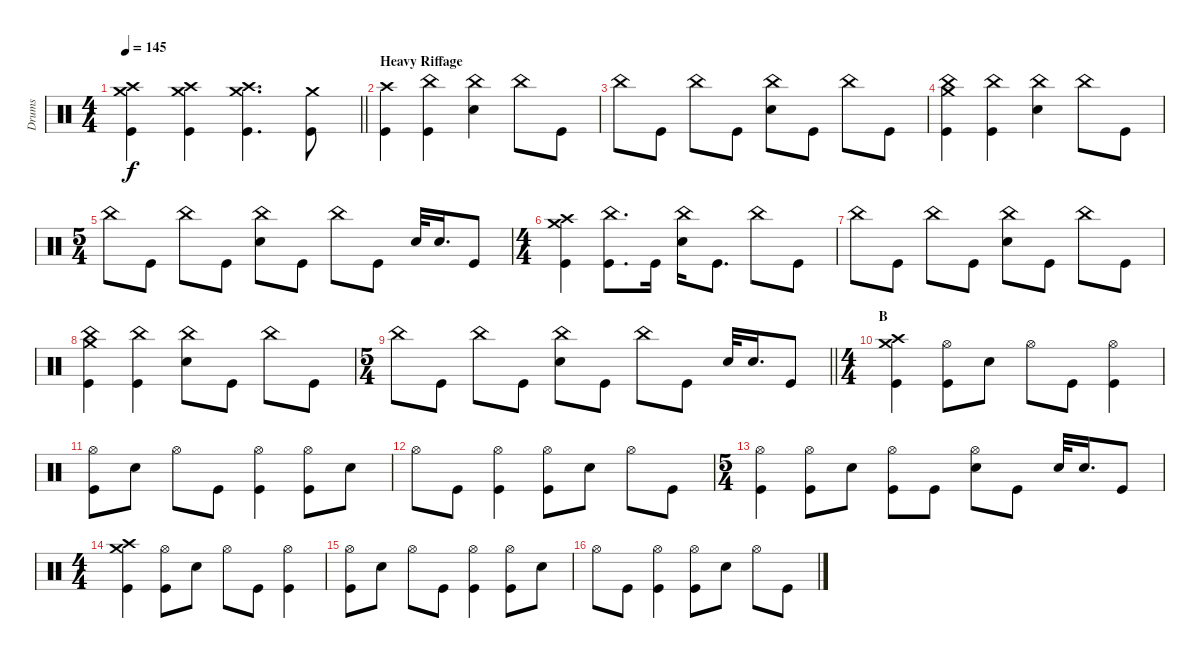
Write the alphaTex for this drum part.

\track ("Drums" "Drums") {instrument percussion}
\staff {score}
\articulation defaults
\ts (4 4)
\tempo 145
\clef neutral
\barLineRight lightlight
\ks c
("Crash medium (hit)" "Crash high (hit)" "Kick (hit)").4{dy f} ("Crash medium (hit)" "Crash high (hit)" "Kick (hit)").4 ("Crash medium (hit)" "Crash high (hit)" "Kick (hit)").4{d volume 1} ("Crash medium (hit)" "Kick (hit)").8{volume 13} |
\section ("" "Heavy Riffage")
("Crash high (hit)" "Kick (hit)").4 ("China (hit)" "Kick (hit)").4 ("China (hit)" "Electric Snare (hit)").4 "China (hit)".8 "Kick (hit)".8 |
"China (hit)".8 "Kick (hit)".8 "China (hit)".8 "Kick (hit)".8 ("China (hit)" "Electric Snare (hit)").8 "Kick (hit)".8 "China (hit)".8 "Kick (hit)".8 |
("Crash medium (hit)" "China (hit)" "Kick (hit)").4 ("China (hit)" "Kick (hit)").4 ("China (hit)" "Electric Snare (hit)").4 "China (hit)".8 "Kick (hit)".8 |
\ts (5 4)
"China (hit)".8 "Kick (hit)".8 "China (hit)".8 "Kick (hit)".8 ("China (hit)" "Electric Snare (hit)").8 "Kick (hit)".8 "China (hit)".8 "Kick (hit)".8 "Electric Snare (hit)".32 "Electric Snare (hit)".16{d} "Kick (hit)".8 |
\ts (4 4)
("Crash medium (hit)" "Crash high (hit)" "Kick (hit)").4 ("China (hit)" "Kick (hit)").8{d} "Kick (hit)".16 ("China (hit)" "Electric Snare (hit)").16 "Kick (hit)".8{d} "China (hit)".8 "Kick (hit)".8 |
"China (hit)".8 "Kick (hit)".8 "China (hit)".8 "Kick (hit)".8 ("China (hit)" "Electric Snare (hit)").8 "Kick (hit)".8 "China (hit)".8 "Kick (hit)".8 |
("Crash medium (hit)" "China (hit)" "Kick (hit)").4 ("China (hit)" "Kick (hit)").4 ("China (hit)" "Electric Snare (hit)").8 "Kick (hit)".8 "China (hit)".8 "Kick (hit)".8 |
\ts (5 4)
\barLineRight lightlight "China (hit)".8 "Kick (hit)".8 "China (hit)".8 "Kick (hit)".8
("China (hit)" "Electric Snare (hit)").8 "Kick (hit)".8 "China (hit)".8 "Kick (hit)".8 "Electric Snare (hit)".32 "Electric Snare (hit)".16{d} "Kick (hit)".8 |
\ts (4 4)
\section ("" "B")
("Crash medium (hit)" "Crash high (hit)" "Kick (hit)").4 ("Hi-Hat (open)" "Kick (hit)").8 "Electric Snare (hit)".8 "Hi-Hat (open)".8 "Kick (hit)".8 ("Hi-Hat (open)" "Kick (hit)").4 |
("Hi-Hat (open)" "Kick (hit)").8 "Electric Snare (hit)".8 "Hi-Hat (open)".8 "Kick (hit)".8 ("Hi-Hat (open)" "Kick (hit)").4 ("Hi-Hat (open)" "Kick (hit)").8 "Electric Snare (hit)".8 |
"Hi-Hat (open)".8 "Kick (hit)".8 ("Hi-Hat (open)" "Kick (hit)").4 ("Hi-Hat (open)" "Kick (hit)").8 "Electric Snare (hit)".8 "Hi-Hat (open)".8 "Kick (hit)".8 |
\ts (5 4)
("Hi-Hat (open)" "Kick (hit)").4 ("Hi-Hat (open)" "Kick (hit)").8 "Electric Snare (hit)".8 ("Hi-Hat (open)" "Kick (hit)").8 "Kick (hit)".8 ("Hi-Hat (open)" "Electric Snare (hit)").8 "Kick (hit)".8 "Electric Snare (hit)".32 "Electric Snare (hit)".16{d} "Kick (hit)".8 |
\ts (4 4)
("Crash medium (hit)" "Crash high (hit)" "Kick (hit)").4 ("Hi-Hat (open)" "Kick (hit)").8 "Electric Snare (hit)".8 "Hi-Hat (open)".8 "Kick (hit)".8 ("Hi-Hat (open)" "Kick (hit)").4 |
("Hi-Hat (open)" "Kick (hit)").8 "Electric Snare (hit)".8 "Hi-Hat (open)".8 "Kick (hit)".8 ("Hi-Hat (open)" "Kick (hit)").4 ("Hi-Hat (open)" "Kick (hit)").8 "Electric Snare (hit)".8 |
"Hi-Hat (open)".8 "Kick (hit)".8 ("Hi-Hat (open)" "Kick (hit)").4 ("Hi-Hat (open)" "Kick (hit)").8 "Electric Snare (hit)".8 "Hi-Hat (open)".8 "Kick (hit)".8
